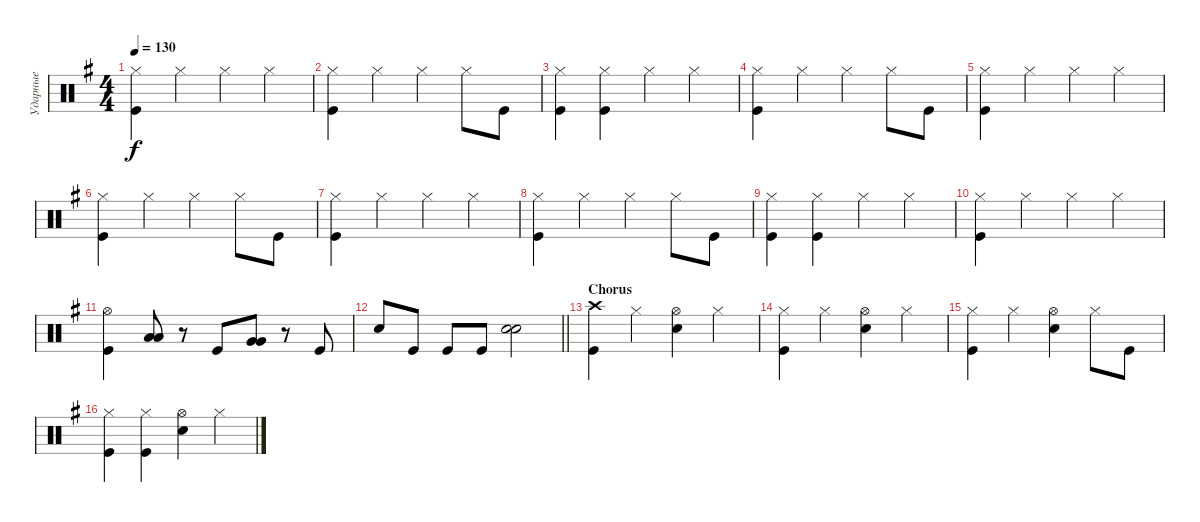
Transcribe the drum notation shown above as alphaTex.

\track ("Ударные" "Ударные") {instrument percussion}
\staff {score}
\articulation defaults
\ts (4 4)
\tempo 130
\clef neutral
\ks eminor
("Kick (hit)" "Hi-Hat (closed)").4{dy f} "Hi-Hat (closed)".4 "Hi-Hat (closed)".4 "Hi-Hat (closed)".4 |
("Kick (hit)" "Hi-Hat (closed)").4 "Hi-Hat (closed)".4 "Hi-Hat (closed)".4 "Hi-Hat (closed)".8 "Kick (hit)".8 |
("Kick (hit)" "Hi-Hat (closed)").4 ("Hi-Hat (closed)" "Kick (hit)").4 "Hi-Hat (closed)".4 "Hi-Hat (closed)".4 |
("Kick (hit)" "Hi-Hat (closed)").4 "Hi-Hat (closed)".4 "Hi-Hat (closed)".4 "Hi-Hat (closed)".8 "Kick (hit)".8 |
("Kick (hit)" "Hi-Hat (closed)").4 "Hi-Hat (closed)".4 "Hi-Hat (closed)".4 "Hi-Hat (closed)".4 |
("Kick (hit)" "Hi-Hat (closed)").4 "Hi-Hat (closed)".4 "Hi-Hat (closed)".4 "Hi-Hat (closed)".8 "Kick (hit)".8 |
("Kick (hit)" "Hi-Hat (closed)").4 "Hi-Hat (closed)".4 "Hi-Hat (closed)".4 "Hi-Hat (closed)".4 |
("Kick (hit)" "Hi-Hat (closed)").4 "Hi-Hat (closed)".4 "Hi-Hat (closed)".4 "Hi-Hat (closed)".8 "Kick (hit)".8 |
("Kick (hit)" "Hi-Hat (closed)").4 ("Hi-Hat (closed)" "Kick (hit)").4 "Hi-Hat (closed)".4 "Hi-Hat (closed)".4 |
("Kick (hit)" "Hi-Hat (closed)").4 "Hi-Hat (closed)".4 "Hi-Hat (closed)".4 "Hi-Hat (closed)".4 |
("Hi-Hat (open)" "Kick (hit)").4 ("Low Tom (hit)" "Low Tom (hit)").8{bd 480} r.8 "Kick (hit)".8 ("Very Low Tom (hit)" "Very Low Tom (hit)").8{bd 480} r.8 "Kick (hit)".8 |
\barLineRight lightlight "Snare (hit) 2".8 "Kick (hit)".8 "Kick (hit)".8 "Kick (hit)".8
("Snare (hit) 2" "Snare (hit) 2").2{bd 240} |
\section ("" "Chorus")
("Kick (hit)" "Crash high (hit)").4 "Hi-Hat (closed)".4 ("Hi-Hat (open)" "Snare (hit) 2").4 "Hi-Hat (closed)".4 |
("Hi-Hat (closed)" "Kick (hit)").4 "Hi-Hat (closed)".4 ("Hi-Hat (open)" "Snare (hit) 2").4 "Hi-Hat (closed)".4 |
("Hi-Hat (closed)" "Kick (hit)").4 "Hi-Hat (closed)".4 ("Hi-Hat (open)" "Snare (hit) 2").4 "Hi-Hat (closed)".8 "Kick (hit)".8 |
("Hi-Hat (closed)" "Kick (hit)").4 ("Hi-Hat (closed)" "Kick (hit)").4 ("Hi-Hat (open)" "Snare (hit) 2").4 "Hi-Hat (closed)".4
